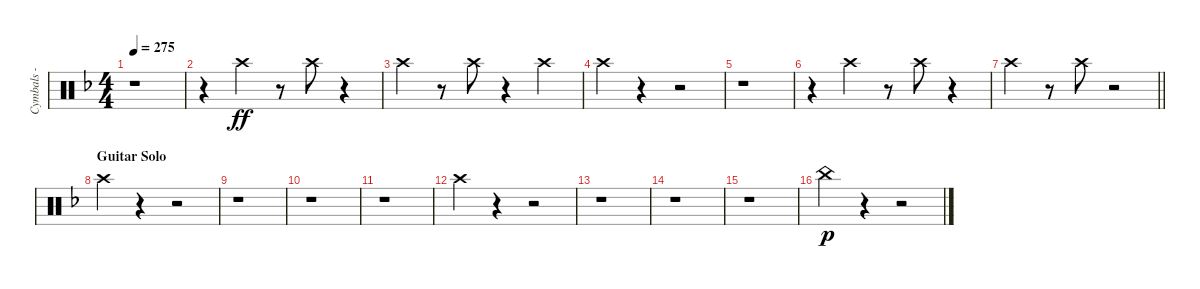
\track ("Cymbals - crash" "Cymbals - ") {instrument percussion}
\staff {score}
\articulation defaults
\ts (4 4)
\tempo 275
\clef neutral
\ks dminor
r.1{dy p} |
r.4 "Crash high (hit)".4{dy ff} r.8 "Crash high (hit)".8 r.4 |
"Crash high (hit)".4 r.8 "Crash high (hit)".8 r.4 "Crash high (hit)".4 |
"Crash high (hit)".4 r.4 r.2 |
r.1 |
r.4 "Crash high (hit)".4 r.8 "Crash high (hit)".8 r.4 |
\barLineRight lightlight "Crash high (hit)".4
r.8 "Crash high (hit)".8 r.2 |
\section ("" "Guitar Solo")
"Crash high (hit)".4 r.4 r.2 |
r.1 |
r.1 |
r.1 |
"Crash high (hit)".4 r.4 r.2 |
r.1 |
r.1 |
r.1 |
"China (hit)".4{dy p} r.4 r.2
